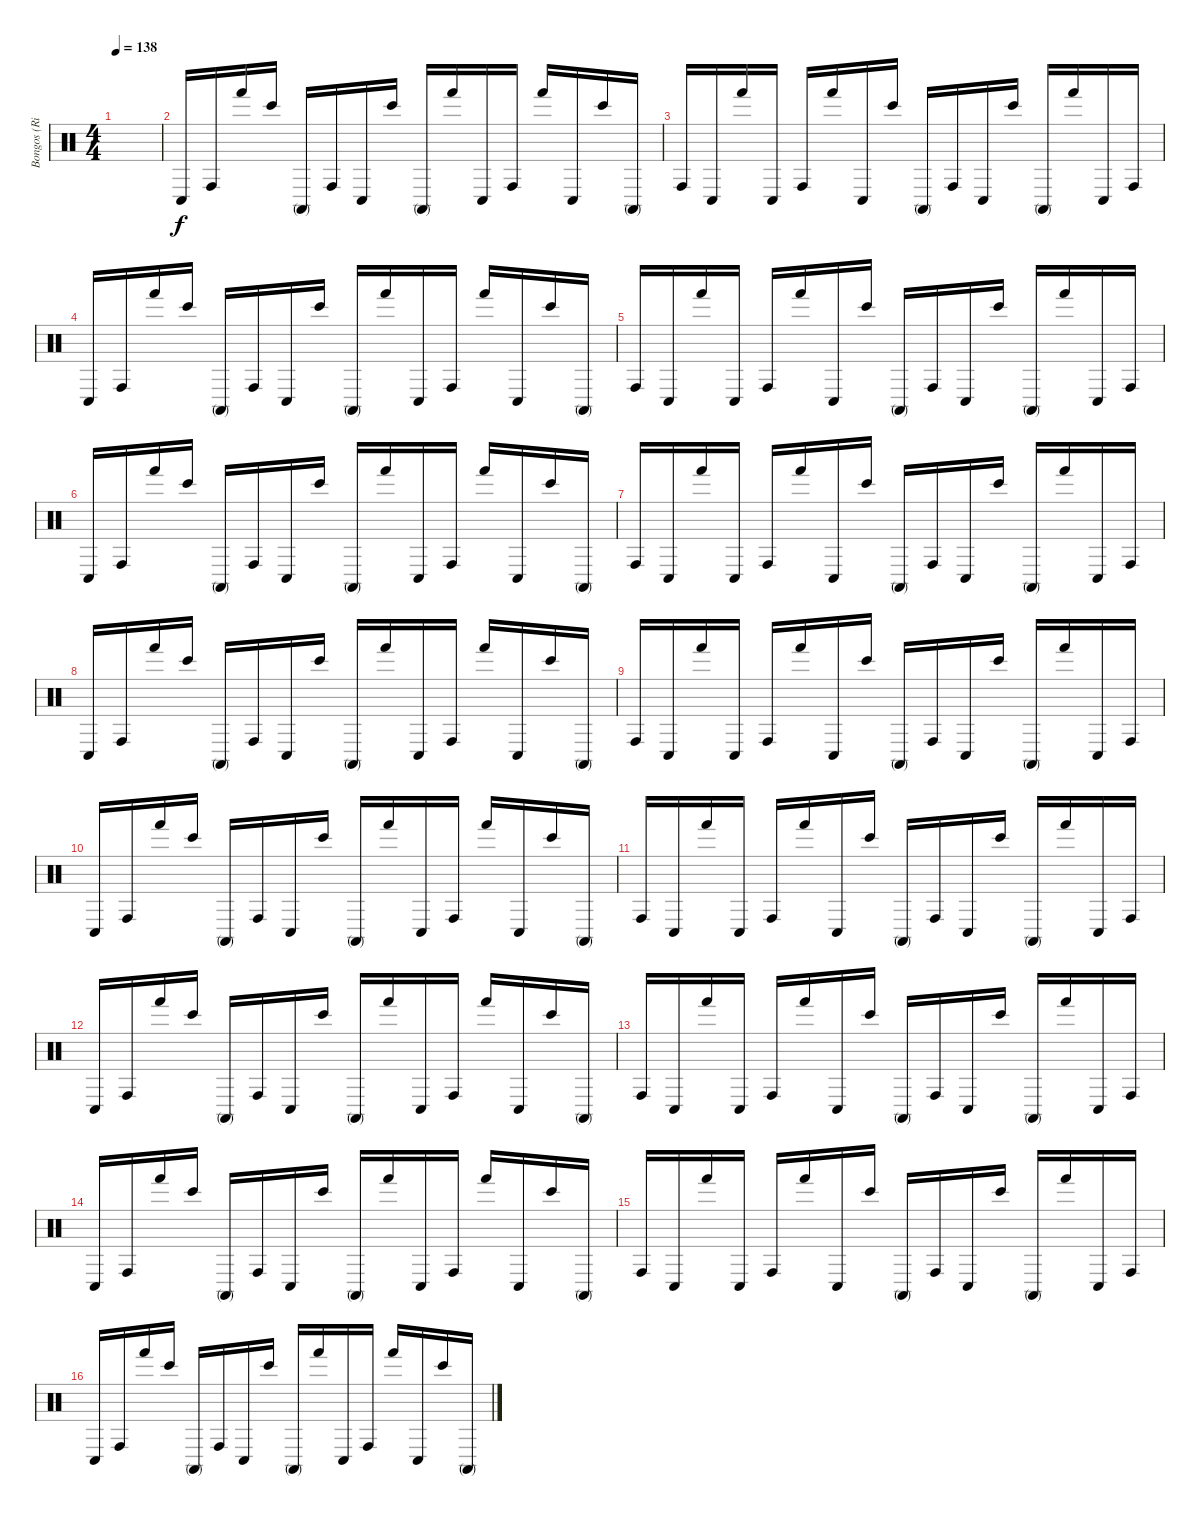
\track ("Bongos (Ringo Starr)" "Bongos (Ri") {instrument percussion}
\staff {score}
\articulation defaults
\ts (4 4)
\tempo 138
\clef neutral
\ks c
|
"Conga low (hit)".16 "Conga high (hit)".16 "Hand (hit)".16 "Bongo High (hit)".16 "Conga high (mute)".16 "Conga high (hit)".16 "Conga low (hit)".16 "Bongo High (hit)".16 "Conga high (mute)".16 "Hand (hit)".16 "Conga low (hit)".16 "Conga high (hit)".16 "Hand (hit)".16 "Conga low (hit)".16 "Bongo High (hit)".16 "Conga high (mute)".16 |
"Conga high (hit)".16 "Conga low (hit)".16 "Hand (hit)".16 "Conga low (hit)".16 "Conga high (hit)".16 "Hand (hit)".16 "Conga low (hit)".16 "Bongo High (hit)".16 "Conga high (mute)".16 "Conga high (hit)".16 "Conga low (hit)".16 "Bongo High (hit)".16 "Conga high (mute)".16 "Hand (hit)".16 "Conga low (hit)".16 "Conga high (hit)".16 |
"Conga low (hit)".16 "Conga high (hit)".16 "Hand (hit)".16 "Bongo High (hit)".16 "Conga high (mute)".16 "Conga high (hit)".16 "Conga low (hit)".16 "Bongo High (hit)".16 "Conga high (mute)".16 "Hand (hit)".16 "Conga low (hit)".16 "Conga high (hit)".16 "Hand (hit)".16 "Conga low (hit)".16 "Bongo High (hit)".16 "Conga high (mute)".16 |
"Conga high (hit)".16 "Conga low (hit)".16 "Hand (hit)".16 "Conga low (hit)".16 "Conga high (hit)".16 "Hand (hit)".16 "Conga low (hit)".16 "Bongo High (hit)".16 "Conga high (mute)".16 "Conga high (hit)".16 "Conga low (hit)".16 "Bongo High (hit)".16 "Conga high (mute)".16 "Hand (hit)".16 "Conga low (hit)".16 "Conga high (hit)".16 |
"Conga low (hit)".16 "Conga high (hit)".16 "Hand (hit)".16 "Bongo High (hit)".16 "Conga high (mute)".16 "Conga high (hit)".16 "Conga low (hit)".16 "Bongo High (hit)".16 "Conga high (mute)".16 "Hand (hit)".16 "Conga low (hit)".16 "Conga high (hit)".16 "Hand (hit)".16 "Conga low (hit)".16 "Bongo High (hit)".16 "Conga high (mute)".16 |
"Conga high (hit)".16 "Conga low (hit)".16 "Hand (hit)".16 "Conga low (hit)".16 "Conga high (hit)".16 "Hand (hit)".16 "Conga low (hit)".16 "Bongo High (hit)".16 "Conga high (mute)".16 "Conga high (hit)".16 "Conga low (hit)".16 "Bongo High (hit)".16 "Conga high (mute)".16 "Hand (hit)".16 "Conga low (hit)".16 "Conga high (hit)".16 |
"Conga low (hit)".16 "Conga high (hit)".16 "Hand (hit)".16 "Bongo High (hit)".16 "Conga high (mute)".16 "Conga high (hit)".16 "Conga low (hit)".16 "Bongo High (hit)".16 "Conga high (mute)".16 "Hand (hit)".16 "Conga low (hit)".16 "Conga high (hit)".16 "Hand (hit)".16 "Conga low (hit)".16 "Bongo High (hit)".16 "Conga high (mute)".16 |
"Conga high (hit)".16 "Conga low (hit)".16 "Hand (hit)".16 "Conga low (hit)".16 "Conga high (hit)".16 "Hand (hit)".16 "Conga low (hit)".16 "Bongo High (hit)".16 "Conga high (mute)".16 "Conga high (hit)".16 "Conga low (hit)".16 "Bongo High (hit)".16 "Conga high (mute)".16 "Hand (hit)".16 "Conga low (hit)".16 "Conga high (hit)".16 |
"Conga low (hit)".16 "Conga high (hit)".16 "Hand (hit)".16 "Bongo High (hit)".16 "Conga high (mute)".16 "Conga high (hit)".16 "Conga low (hit)".16 "Bongo High (hit)".16 "Conga high (mute)".16 "Hand (hit)".16 "Conga low (hit)".16 "Conga high (hit)".16 "Hand (hit)".16 "Conga low (hit)".16 "Bongo High (hit)".16 "Conga high (mute)".16 |
"Conga high (hit)".16 "Conga low (hit)".16 "Hand (hit)".16 "Conga low (hit)".16 "Conga high (hit)".16 "Hand (hit)".16 "Conga low (hit)".16 "Bongo High (hit)".16 "Conga high (mute)".16 "Conga high (hit)".16 "Conga low (hit)".16 "Bongo High (hit)".16 "Conga high (mute)".16 "Hand (hit)".16 "Conga low (hit)".16 "Conga high (hit)".16 |
"Conga low (hit)".16 "Conga high (hit)".16 "Hand (hit)".16 "Bongo High (hit)".16 "Conga high (mute)".16 "Conga high (hit)".16 "Conga low (hit)".16 "Bongo High (hit)".16 "Conga high (mute)".16 "Hand (hit)".16 "Conga low (hit)".16 "Conga high (hit)".16 "Hand (hit)".16 "Conga low (hit)".16 "Bongo High (hit)".16 "Conga high (mute)".16 |
"Conga high (hit)".16 "Conga low (hit)".16 "Hand (hit)".16 "Conga low (hit)".16 "Conga high (hit)".16 "Hand (hit)".16 "Conga low (hit)".16 "Bongo High (hit)".16 "Conga high (mute)".16 "Conga high (hit)".16 "Conga low (hit)".16 "Bongo High (hit)".16 "Conga high (mute)".16 "Hand (hit)".16 "Conga low (hit)".16 "Conga high (hit)".16 |
"Conga low (hit)".16 "Conga high (hit)".16 "Hand (hit)".16 "Bongo High (hit)".16 "Conga high (mute)".16 "Conga high (hit)".16 "Conga low (hit)".16 "Bongo High (hit)".16 "Conga high (mute)".16 "Hand (hit)".16 "Conga low (hit)".16 "Conga high (hit)".16 "Hand (hit)".16 "Conga low (hit)".16 "Bongo High (hit)".16 "Conga high (mute)".16 |
"Conga high (hit)".16 "Conga low (hit)".16 "Hand (hit)".16 "Conga low (hit)".16 "Conga high (hit)".16 "Hand (hit)".16 "Conga low (hit)".16 "Bongo High (hit)".16 "Conga high (mute)".16 "Conga high (hit)".16 "Conga low (hit)".16 "Bongo High (hit)".16 "Conga high (mute)".16 "Hand (hit)".16 "Conga low (hit)".16 "Conga high (hit)".16 |
"Conga low (hit)".16 "Conga high (hit)".16 "Hand (hit)".16 "Bongo High (hit)".16 "Conga high (mute)".16 "Conga high (hit)".16 "Conga low (hit)".16 "Bongo High (hit)".16 "Conga high (mute)".16 "Hand (hit)".16 "Conga low (hit)".16 "Conga high (hit)".16 "Hand (hit)".16 "Conga low (hit)".16 "Bongo High (hit)".16 "Conga high (mute)".16
